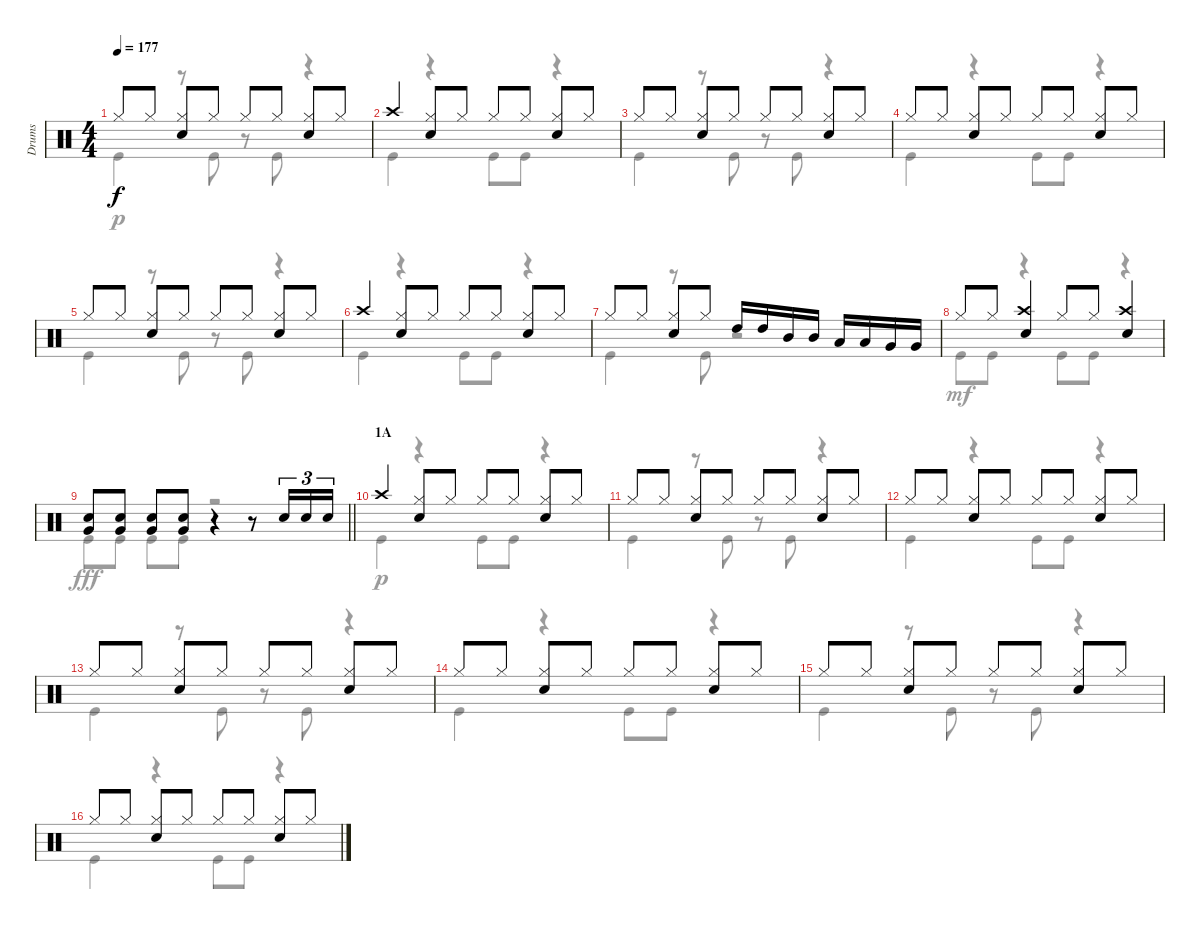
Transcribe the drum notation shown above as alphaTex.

\track ("Drums" "Drums") {instrument percussion}
\staff {score}
\articulation defaults
\voice
\ts (4 4)
\tempo 177
\clef neutral
\ks c "Hi-Hat (closed)".8{dy f} "Hi-Hat (closed)".8
("Hi-Hat (closed)" "Snare (hit) 2").8 "Hi-Hat (closed)".8 "Hi-Hat (closed)".8 "Hi-Hat (closed)".8 ("Hi-Hat (closed)" "Snare (hit) 2").8 "Hi-Hat (closed)".8 |
"Crash high (hit)".4 ("Hi-Hat (closed)" "Snare (hit) 2").8 "Hi-Hat (closed)".8 "Hi-Hat (closed)".8 "Hi-Hat (closed)".8 ("Hi-Hat (closed)" "Snare (hit) 2").8 "Hi-Hat (closed)".8 |
"Hi-Hat (closed)".8 "Hi-Hat (closed)".8 ("Hi-Hat (closed)" "Snare (hit) 2").8 "Hi-Hat (closed)".8 "Hi-Hat (closed)".8 "Hi-Hat (closed)".8 ("Hi-Hat (closed)" "Snare (hit) 2").8 "Hi-Hat (closed)".8 |
"Hi-Hat (closed)".8 "Hi-Hat (closed)".8 ("Hi-Hat (closed)" "Snare (hit) 2").8 "Hi-Hat (closed)".8 "Hi-Hat (closed)".8 "Hi-Hat (closed)".8 ("Hi-Hat (closed)" "Snare (hit) 2").8 "Hi-Hat (closed)".8 |
"Hi-Hat (closed)".8 "Hi-Hat (closed)".8 ("Hi-Hat (closed)" "Snare (hit) 2").8 "Hi-Hat (closed)".8 "Hi-Hat (closed)".8 "Hi-Hat (closed)".8 ("Hi-Hat (closed)" "Snare (hit) 2").8 "Hi-Hat (closed)".8 |
"Crash high (hit)".4 ("Hi-Hat (closed)" "Snare (hit) 2").8 "Hi-Hat (closed)".8 "Hi-Hat (closed)".8 "Hi-Hat (closed)".8 ("Hi-Hat (closed)" "Snare (hit) 2").8 "Hi-Hat (closed)".8 |
"Hi-Hat (closed)".8 "Hi-Hat (closed)".8 ("Hi-Hat (closed)" "Snare (hit) 2").8 "Hi-Hat (closed)".8 "High Tom (hit)".16 "High Tom (hit)".16 "Mid Tom (hit)".16 "Mid Tom (hit)".16 "Low Tom (hit)".16 "Low Tom (hit)".16 "Very Low Tom (hit)".16 "Very Low Tom (hit)".16 |
"Hi-Hat (closed)".8 "Hi-Hat (closed)".8 ("Crash high (hit)" "Snare (hit) 2").4 "Hi-Hat (closed)".8 "Hi-Hat (closed)".8 ("Crash high (hit)" "Snare (hit) 2").4 |
\barLineRight lightlight
("Very Low Tom (hit)" "Snare (hit) 2").8 ("Very Low Tom (hit)" "Snare (hit) 2").8 ("Very Low Tom (hit)" "Snare (hit) 2").8 ("Very Low Tom (hit)" "Snare (hit) 2").8 r.4 r.8 "Snare (hit) 2".16{tu (3 2)} "Snare (hit) 2".16{tu (3 2)} "Snare (hit) 2".16{tu (3 2)} |
\section ("" "1A")
"Crash high (hit)".4 ("Hi-Hat (closed)" "Snare (hit) 2").8 "Hi-Hat (closed)".8 "Hi-Hat (closed)".8 "Hi-Hat (closed)".8 ("Hi-Hat (closed)" "Snare (hit) 2").8 "Hi-Hat (closed)".8 |
"Hi-Hat (closed)".8 "Hi-Hat (closed)".8 ("Hi-Hat (closed)" "Snare (hit) 2").8 "Hi-Hat (closed)".8 "Hi-Hat (closed)".8 "Hi-Hat (closed)".8 ("Hi-Hat (closed)" "Snare (hit) 2").8 "Hi-Hat (closed)".8 |
"Hi-Hat (closed)".8 "Hi-Hat (closed)".8 ("Hi-Hat (closed)" "Snare (hit) 2").8 "Hi-Hat (closed)".8 "Hi-Hat (closed)".8 "Hi-Hat (closed)".8 ("Hi-Hat (closed)" "Snare (hit) 2").8 "Hi-Hat (closed)".8 |
"Hi-Hat (closed)".8 "Hi-Hat (closed)".8 ("Hi-Hat (closed)" "Snare (hit) 2").8 "Hi-Hat (closed)".8 "Hi-Hat (closed)".8 "Hi-Hat (closed)".8 ("Hi-Hat (closed)" "Snare (hit) 2").8 "Hi-Hat (closed)".8 |
"Hi-Hat (closed)".8 "Hi-Hat (closed)".8 ("Hi-Hat (closed)" "Snare (hit) 2").8 "Hi-Hat (closed)".8 "Hi-Hat (closed)".8 "Hi-Hat (closed)".8 ("Hi-Hat (closed)" "Snare (hit) 2").8 "Hi-Hat (closed)".8 |
"Hi-Hat (closed)".8 "Hi-Hat (closed)".8 ("Hi-Hat (closed)" "Snare (hit) 2").8 "Hi-Hat (closed)".8 "Hi-Hat (closed)".8 "Hi-Hat (closed)".8 ("Hi-Hat (closed)" "Snare (hit) 2").8 "Hi-Hat (closed)".8 |
"Hi-Hat (closed)".8 "Hi-Hat (closed)".8 ("Hi-Hat (closed)" "Snare (hit) 2").8 "Hi-Hat (closed)".8 "Hi-Hat (closed)".8 "Hi-Hat (closed)".8 ("Hi-Hat (closed)" "Snare (hit) 2").8 "Hi-Hat (closed)".8
\voice
\clef neutral
\ottava regular
\simile none
\ks c "Kick (hit)".4{dy p}
r.8 "Kick (hit)".8 r.8 "Kick (hit)".8 r.4 |
"Kick (hit)".4 r.4 "Kick (hit)".8 "Kick (hit)".8 r.4 |
"Kick (hit)".4 r.8 "Kick (hit)".8 r.8 "Kick (hit)".8 r.4 |
"Kick (hit)".4 r.4 "Kick (hit)".8 "Kick (hit)".8 r.4 |
"Kick (hit)".4 r.8 "Kick (hit)".8 r.8 "Kick (hit)".8 r.4 |
"Kick (hit)".4 r.4 "Kick (hit)".8 "Kick (hit)".8 r.4 |
"Kick (hit)".4 r.8 "Kick (hit)".8 r.2 |
"Kick (hit)".8{dy mf} "Kick (hit)".8 r.4 "Kick (hit)".8 "Kick (hit)".8 r.4 |
\barLineRight lightlight "Kick (hit)".8{dy fff} "Kick (hit)".8 "Kick (hit)".8 "Kick (hit)".8
r.2 |
"Kick (hit)".4{dy p} r.4 "Kick (hit)".8 "Kick (hit)".8 r.4 |
"Kick (hit)".4 r.8 "Kick (hit)".8 r.8 "Kick (hit)".8 r.4 |
"Kick (hit)".4 r.4 "Kick (hit)".8 "Kick (hit)".8 r.4 |
"Kick (hit)".4 r.8 "Kick (hit)".8 r.8 "Kick (hit)".8 r.4 |
"Kick (hit)".4 r.4 "Kick (hit)".8 "Kick (hit)".8 r.4 |
"Kick (hit)".4 r.8 "Kick (hit)".8 r.8 "Kick (hit)".8 r.4 |
"Kick (hit)".4 r.4 "Kick (hit)".8 "Kick (hit)".8 r.4
